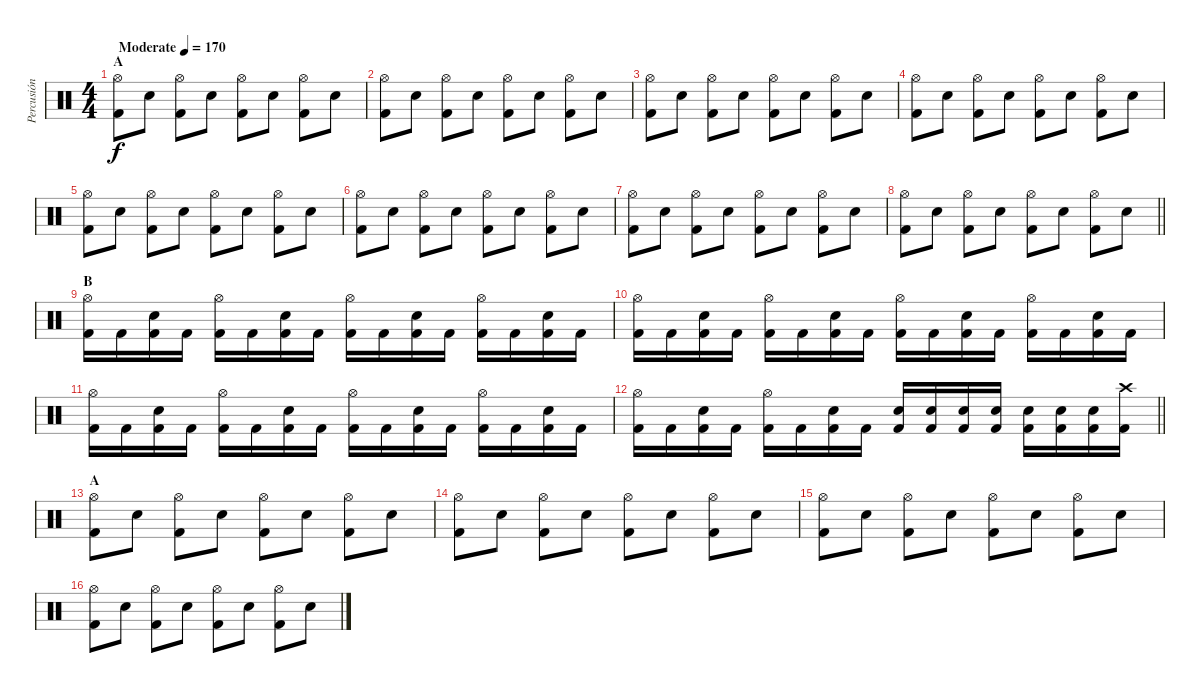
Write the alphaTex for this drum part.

\track ("Percusión" "Percusión") {instrument percussion}
\staff {score}
\articulation defaults
\ts (4 4)
\section ("" "A")
\tempo (170 "Moderate")
\clef neutral
\ks c
("Hi-Hat (open)" "Kick (hit) 2").8{dy f} "Snare (hit) 2".8 ("Hi-Hat (open)" "Kick (hit) 2").8 "Snare (hit) 2".8 ("Hi-Hat (open)" "Kick (hit) 2").8 "Snare (hit) 2".8 ("Hi-Hat (open)" "Kick (hit) 2").8 "Snare (hit) 2".8 |
("Hi-Hat (open)" "Kick (hit) 2").8 "Snare (hit) 2".8 ("Hi-Hat (open)" "Kick (hit) 2").8 "Snare (hit) 2".8 ("Hi-Hat (open)" "Kick (hit) 2").8 "Snare (hit) 2".8 ("Hi-Hat (open)" "Kick (hit) 2").8 "Snare (hit) 2".8 |
("Hi-Hat (open)" "Kick (hit) 2").8 "Snare (hit) 2".8 ("Hi-Hat (open)" "Kick (hit) 2").8 "Snare (hit) 2".8 ("Hi-Hat (open)" "Kick (hit) 2").8 "Snare (hit) 2".8 ("Hi-Hat (open)" "Kick (hit) 2").8 "Snare (hit) 2".8 |
("Hi-Hat (open)" "Kick (hit) 2").8 "Snare (hit) 2".8 ("Hi-Hat (open)" "Kick (hit) 2").8 "Snare (hit) 2".8 ("Hi-Hat (open)" "Kick (hit) 2").8 "Snare (hit) 2".8 ("Hi-Hat (open)" "Kick (hit) 2").8 "Snare (hit) 2".8 |
("Hi-Hat (open)" "Kick (hit) 2").8 "Snare (hit) 2".8 ("Hi-Hat (open)" "Kick (hit) 2").8 "Snare (hit) 2".8 ("Hi-Hat (open)" "Kick (hit) 2").8 "Snare (hit) 2".8 ("Hi-Hat (open)" "Kick (hit) 2").8 "Snare (hit) 2".8 |
("Hi-Hat (open)" "Kick (hit) 2").8 "Snare (hit) 2".8 ("Hi-Hat (open)" "Kick (hit) 2").8 "Snare (hit) 2".8 ("Hi-Hat (open)" "Kick (hit) 2").8 "Snare (hit) 2".8 ("Hi-Hat (open)" "Kick (hit) 2").8 "Snare (hit) 2".8 |
("Hi-Hat (open)" "Kick (hit) 2").8 "Snare (hit) 2".8 ("Hi-Hat (open)" "Kick (hit) 2").8 "Snare (hit) 2".8 ("Hi-Hat (open)" "Kick (hit) 2").8 "Snare (hit) 2".8 ("Hi-Hat (open)" "Kick (hit) 2").8 "Snare (hit) 2".8 |
\barLineRight lightlight
("Hi-Hat (open)" "Kick (hit) 2").8 "Snare (hit) 2".8 ("Hi-Hat (open)" "Kick (hit) 2").8 "Snare (hit) 2".8 ("Hi-Hat (open)" "Kick (hit) 2").8 "Snare (hit) 2".8 ("Hi-Hat (open)" "Kick (hit) 2").8 "Snare (hit) 2".8 |
\section ("" "B")
("Hi-Hat (open)" "Kick (hit) 2").16 "Kick (hit) 2".16 ("Snare (hit) 2" "Kick (hit) 2").16 "Kick (hit) 2".16 ("Hi-Hat (open)" "Kick (hit) 2").16 "Kick (hit) 2".16 ("Snare (hit) 2" "Kick (hit) 2").16 "Kick (hit) 2".16 ("Hi-Hat (open)" "Kick (hit) 2").16 "Kick (hit) 2".16 ("Snare (hit) 2" "Kick (hit) 2").16 "Kick (hit) 2".16 ("Hi-Hat (open)" "Kick (hit) 2").16 "Kick (hit) 2".16 ("Snare (hit) 2" "Kick (hit) 2").16 "Kick (hit) 2".16 |
("Hi-Hat (open)" "Kick (hit) 2").16 "Kick (hit) 2".16 ("Snare (hit) 2" "Kick (hit) 2").16 "Kick (hit) 2".16 ("Hi-Hat (open)" "Kick (hit) 2").16 "Kick (hit) 2".16 ("Snare (hit) 2" "Kick (hit) 2").16 "Kick (hit) 2".16 ("Hi-Hat (open)" "Kick (hit) 2").16 "Kick (hit) 2".16 ("Snare (hit) 2" "Kick (hit) 2").16 "Kick (hit) 2".16 ("Hi-Hat (open)" "Kick (hit) 2").16 "Kick (hit) 2".16 ("Snare (hit) 2" "Kick (hit) 2").16 "Kick (hit) 2".16 |
("Hi-Hat (open)" "Kick (hit) 2").16 "Kick (hit) 2".16 ("Snare (hit) 2" "Kick (hit) 2").16 "Kick (hit) 2".16 ("Hi-Hat (open)" "Kick (hit) 2").16 "Kick (hit) 2".16 ("Snare (hit) 2" "Kick (hit) 2").16 "Kick (hit) 2".16 ("Hi-Hat (open)" "Kick (hit) 2").16 "Kick (hit) 2".16 ("Snare (hit) 2" "Kick (hit) 2").16 "Kick (hit) 2".16 ("Hi-Hat (open)" "Kick (hit) 2").16 "Kick (hit) 2".16 ("Snare (hit) 2" "Kick (hit) 2").16 "Kick (hit) 2".16 |
\barLineRight lightlight
("Hi-Hat (open)" "Kick (hit) 2").16 "Kick (hit) 2".16 ("Snare (hit) 2" "Kick (hit) 2").16 "Kick (hit) 2".16 ("Hi-Hat (open)" "Kick (hit) 2").16 "Kick (hit) 2".16 ("Snare (hit) 2" "Kick (hit) 2").16 "Kick (hit) 2".16 ("Snare (hit) 2" "Kick (hit) 2").16 ("Snare (hit) 2" "Kick (hit) 2").16 ("Snare (hit) 2" "Kick (hit) 2").16 ("Snare (hit) 2" "Kick (hit) 2").16 ("Snare (hit) 2" "Kick (hit) 2").16 ("Snare (hit) 2" "Kick (hit) 2").16 ("Snare (hit) 2" "Kick (hit) 2").16 ("Crash high (hit)" "Kick (hit) 2").16 |
\section ("" "A")
("Hi-Hat (open)" "Kick (hit) 2").8 "Snare (hit) 2".8 ("Hi-Hat (open)" "Kick (hit) 2").8 "Snare (hit) 2".8 ("Hi-Hat (open)" "Kick (hit) 2").8 "Snare (hit) 2".8 ("Hi-Hat (open)" "Kick (hit) 2").8 "Snare (hit) 2".8 |
("Hi-Hat (open)" "Kick (hit) 2").8 "Snare (hit) 2".8 ("Hi-Hat (open)" "Kick (hit) 2").8 "Snare (hit) 2".8 ("Hi-Hat (open)" "Kick (hit) 2").8 "Snare (hit) 2".8 ("Hi-Hat (open)" "Kick (hit) 2").8 "Snare (hit) 2".8 |
("Hi-Hat (open)" "Kick (hit) 2").8 "Snare (hit) 2".8 ("Hi-Hat (open)" "Kick (hit) 2").8 "Snare (hit) 2".8 ("Hi-Hat (open)" "Kick (hit) 2").8 "Snare (hit) 2".8 ("Hi-Hat (open)" "Kick (hit) 2").8 "Snare (hit) 2".8 |
("Hi-Hat (open)" "Kick (hit) 2").8 "Snare (hit) 2".8 ("Hi-Hat (open)" "Kick (hit) 2").8 "Snare (hit) 2".8 ("Hi-Hat (open)" "Kick (hit) 2").8 "Snare (hit) 2".8 ("Hi-Hat (open)" "Kick (hit) 2").8 "Snare (hit) 2".8
